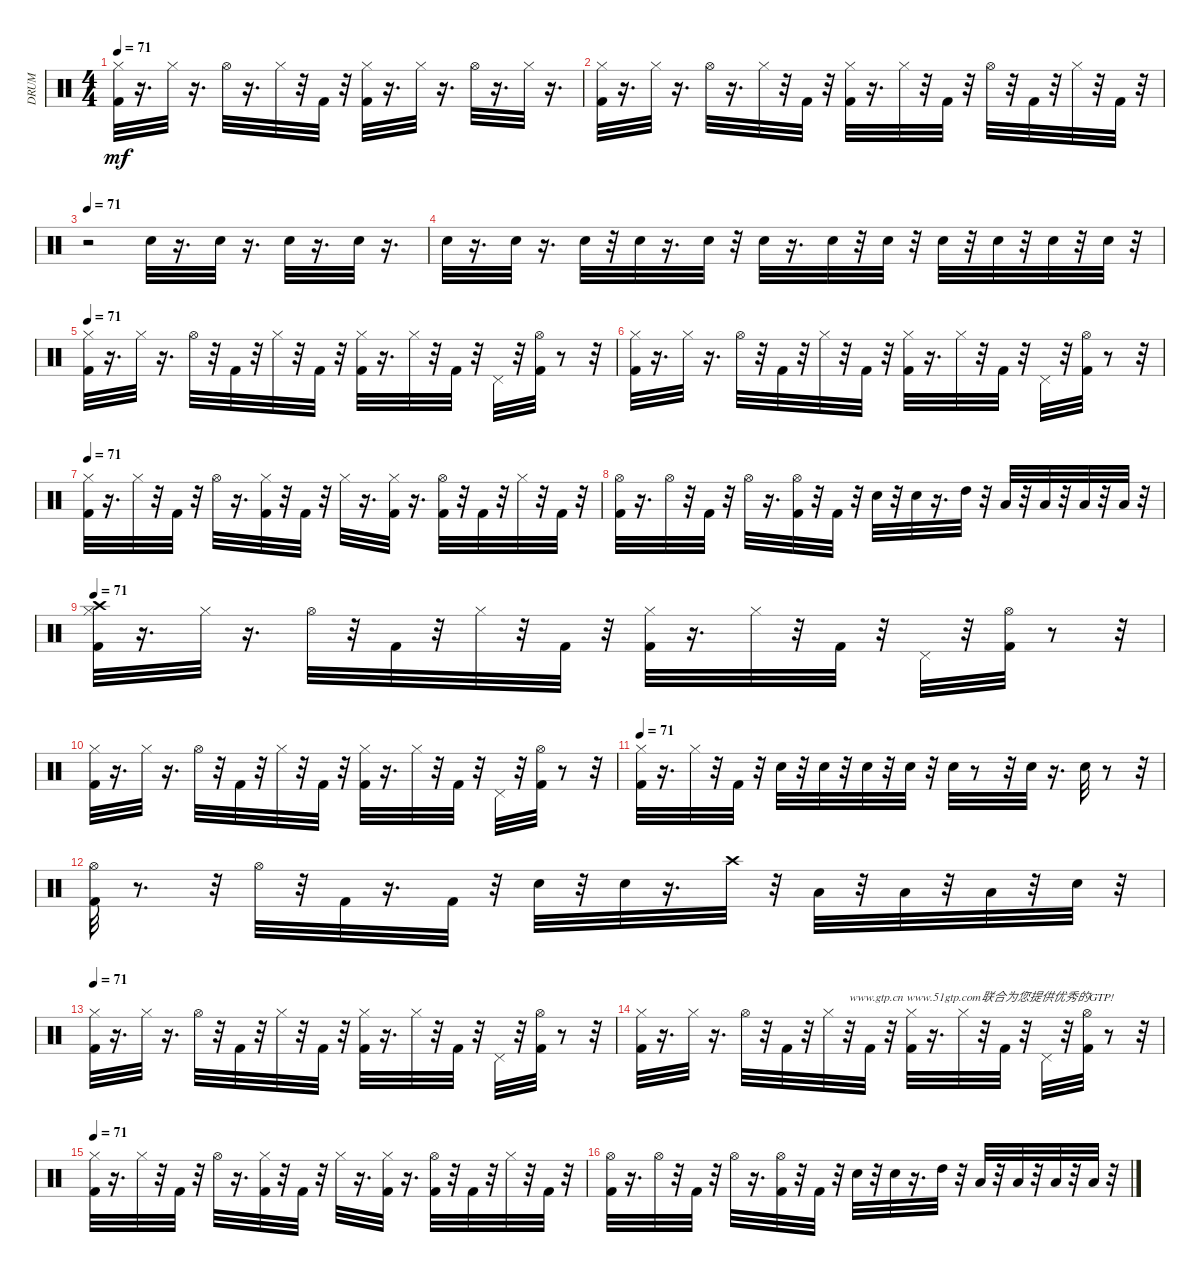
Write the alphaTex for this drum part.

\track ("DRUM" "DRUM") {instrument percussion}
\staff {score}
\articulation defaults
\ts (4 4)
\tempo 71
\clef neutral
\ks c
("Kick (hit) 2" "Hi-Hat (closed)").32{dy mf} r.16{d} "Hi-Hat (closed)".32 r.16{d} "Hi-Hat (open)".32 r.16{d} "Hi-Hat (closed)".32 r.32 "Kick (hit) 2".32 r.32 ("Kick (hit) 2" "Hi-Hat (closed)").32 r.16{d} "Hi-Hat (closed)".32 r.16{d} "Hi-Hat (open)".32 r.16{d} "Hi-Hat (closed)".32 r.16{d} |
("Kick (hit) 2" "Hi-Hat (closed)").32 r.16{d} "Hi-Hat (closed)".32 r.16{d} "Hi-Hat (open)".32 r.16{d} "Hi-Hat (closed)".32 r.32 "Kick (hit) 2".32 r.32 ("Kick (hit) 2" "Hi-Hat (closed)").32 r.16{d} "Hi-Hat (closed)".32 r.32 "Kick (hit) 2".32 r.32 "Hi-Hat (open)".32 r.32 "Kick (hit) 2".32 r.32 "Hi-Hat (closed)".32 r.32 "Kick (hit) 2".32 r.32 |
\tempo 71
r.2 "Snare (hit) 2".32 r.16{d} "Snare (hit) 2".32 r.16{d} "Snare (hit) 2".32 r.16{d} "Snare (hit) 2".32 r.16{d} |
"Snare (hit) 2".32 r.16{d} "Snare (hit) 2".32 r.16{d} "Snare (hit) 2".32 r.32 "Snare (hit) 2".32 r.16{d} "Snare (hit) 2".32 r.32 "Snare (hit) 2".32 r.16{d} "Snare (hit) 2".32 r.32 "Snare (hit) 2".32 r.32 "Snare (hit) 2".32 r.32 "Snare (hit) 2".32 r.32 "Snare (hit) 2".32 r.32 "Snare (hit) 2".32 r.32 |
\tempo 71
("Kick (hit) 2" "Hi-Hat (closed)").32 r.16{d} "Hi-Hat (closed)".32 r.16{d} "Hi-Hat (open)".32 r.32 "Kick (hit) 2".32 r.32 "Hi-Hat (closed)".32 r.32 "Kick (hit) 2".32 r.32 ("Kick (hit) 2" "Hi-Hat (closed)").32 r.16{d} "Hi-Hat (closed)".32 r.32 "Kick (hit) 2".32 r.32 "Pedal Hi-Hat (hit)".32 r.32 ("Kick (hit) 2" "Hi-Hat (open)").32 r.8 r.32 |
("Kick (hit) 2" "Hi-Hat (closed)").32 r.16{d} "Hi-Hat (closed)".32 r.16{d} "Hi-Hat (open)".32 r.32 "Kick (hit) 2".32 r.32 "Hi-Hat (closed)".32 r.32 "Kick (hit) 2".32 r.32 ("Kick (hit) 2" "Hi-Hat (closed)").32 r.16{d} "Hi-Hat (closed)".32 r.32 "Kick (hit) 2".32 r.32 "Pedal Hi-Hat (hit)".32 r.32 ("Kick (hit) 2" "Hi-Hat (open)").32 r.8 r.32 |
\tempo 71
("Kick (hit) 2" "Hi-Hat (closed)").32 r.16{d} "Hi-Hat (closed)".32 r.32 "Kick (hit) 2".32 r.32 "Hi-Hat (open)".32 r.16{d} ("Kick (hit) 2" "Hi-Hat (closed)").32 r.32 "Kick (hit) 2".32 r.32 "Hi-Hat (closed)".32 r.16{d} ("Kick (hit) 2" "Hi-Hat (closed)").32 r.16{d} ("Kick (hit) 2" "Hi-Hat (open)").32 r.32 "Kick (hit) 2".32 r.32 "Hi-Hat (closed)".32 r.32 "Kick (hit) 2".32 r.32 |
("Kick (hit) 2" "Hi-Hat (open)").32 r.16{d} "Hi-Hat (open)".32 r.32 "Kick (hit) 2".32 r.32 "Hi-Hat (open)".32 r.16{d} ("Kick (hit) 2" "Hi-Hat (open)").32 r.32 "Kick (hit) 2".32 r.32 "Snare (hit) 2".32 r.32 "Snare (hit) 2".32 r.16{d} "High Tom (hit)".32 r.32 "Low Tom (hit)".32 r.32 "Low Tom (hit)".32 r.32 "Low Floor Tom (hit)".32 r.32 "Low Floor Tom (hit)".32 r.32 |
\tempo 71
("Kick (hit) 2" "Hi-Hat (closed)" "Crash high (hit)").32 r.16{d} "Hi-Hat (closed)".32 r.16{d} "Hi-Hat (open)".32 r.32 "Kick (hit) 2".32 r.32 "Hi-Hat (closed)".32 r.32 "Kick (hit) 2".32 r.32 ("Kick (hit) 2" "Hi-Hat (closed)").32 r.16{d} "Hi-Hat (closed)".32 r.32 "Kick (hit) 2".32 r.32 "Pedal Hi-Hat (hit)".32 r.32 ("Kick (hit) 2" "Hi-Hat (open)").32 r.8 r.32 |
("Kick (hit) 2" "Hi-Hat (closed)").32 r.16{d} "Hi-Hat (closed)".32 r.16{d} "Hi-Hat (open)".32 r.32 "Kick (hit) 2".32 r.32 "Hi-Hat (closed)".32 r.32 "Kick (hit) 2".32 r.32 ("Kick (hit) 2" "Hi-Hat (closed)").32 r.16{d} "Hi-Hat (closed)".32 r.32 "Kick (hit) 2".32 r.32 "Pedal Hi-Hat (hit)".32 r.32 ("Kick (hit) 2" "Hi-Hat (open)").32 r.8 r.32 |
\tempo 71
("Kick (hit) 2" "Hi-Hat (closed)").32 r.16{d} "Hi-Hat (closed)".32 r.32 "Kick (hit) 2".32 r.32 "Snare (hit) 2".32 r.32 "Snare (hit) 2".32 r.32 "Snare (hit) 2".32 r.32 "Snare (hit) 2".32 r.32 "Snare (hit) 2".32 r.8 r.32 "Snare (hit) 2".32 r.16{d} "Snare (hit) 2".32 r.8 r.32 |
("Kick (hit) 2" "Hi-Hat (open)").32 r.8{d} r.32 "Hi-Hat (open)".32 r.32 "Kick (hit) 2".32 r.16{d} "Kick (hit) 2".32 r.32 "Snare (hit) 2".32 r.32 "Snare (hit) 2".32 r.16{d} "Crash high (hit)".32 r.32 "Low Tom (hit)".32 r.32 "Low Tom (hit)".32 r.32 "Low Floor Tom (hit)".32 r.32 "Snare (hit) 2".32 r.32 |
\tempo 71
("Kick (hit) 2" "Hi-Hat (closed)").32 r.16{d} "Hi-Hat (closed)".32 r.16{d} "Hi-Hat (open)".32 r.32 "Kick (hit) 2".32 r.32 "Hi-Hat (closed)".32 r.32 "Kick (hit) 2".32 r.32 ("Kick (hit) 2" "Hi-Hat (closed)").32 r.16{d} "Hi-Hat (closed)".32 r.32 "Kick (hit) 2".32 r.32 "Pedal Hi-Hat (hit)".32 r.32 ("Kick (hit) 2" "Hi-Hat (open)").32 r.8 r.32 |
("Kick (hit) 2" "Hi-Hat (closed)").32 r.16{d} "Hi-Hat (closed)".32 r.16{d} "Hi-Hat (open)".32 r.32 "Kick (hit) 2".32 r.32 "Hi-Hat (closed)".32 r.32{txt "www.gtp.cn www.51gtp.com联合为您提供优秀的GTP!"} "Kick (hit) 2".32 r.32 ("Kick (hit) 2" "Hi-Hat (closed)").32 r.16{d} "Hi-Hat (closed)".32 r.32 "Kick (hit) 2".32 r.32 "Pedal Hi-Hat (hit)".32 r.32 ("Kick (hit) 2" "Hi-Hat (open)").32 r.8 r.32 |
\tempo 71
("Kick (hit) 2" "Hi-Hat (closed)").32 r.16{d} "Hi-Hat (closed)".32 r.32 "Kick (hit) 2".32 r.32 "Hi-Hat (open)".32 r.16{d} ("Kick (hit) 2" "Hi-Hat (closed)").32 r.32 "Kick (hit) 2".32 r.32 "Hi-Hat (closed)".32 r.16{d} ("Kick (hit) 2" "Hi-Hat (closed)").32 r.16{d} ("Kick (hit) 2" "Hi-Hat (open)").32 r.32 "Kick (hit) 2".32 r.32 "Hi-Hat (closed)".32 r.32 "Kick (hit) 2".32 r.32 |
("Kick (hit) 2" "Hi-Hat (open)").32 r.16{d} "Hi-Hat (open)".32 r.32 "Kick (hit) 2".32 r.32 "Hi-Hat (open)".32 r.16{d} ("Kick (hit) 2" "Hi-Hat (open)").32 r.32 "Kick (hit) 2".32 r.32 "Snare (hit) 2".32 r.32 "Snare (hit) 2".32 r.16{d} "High Tom (hit)".32 r.32 "Low Tom (hit)".32 r.32 "Low Tom (hit)".32 r.32 "Low Floor Tom (hit)".32 r.32 "Low Floor Tom (hit)".32 r.32
